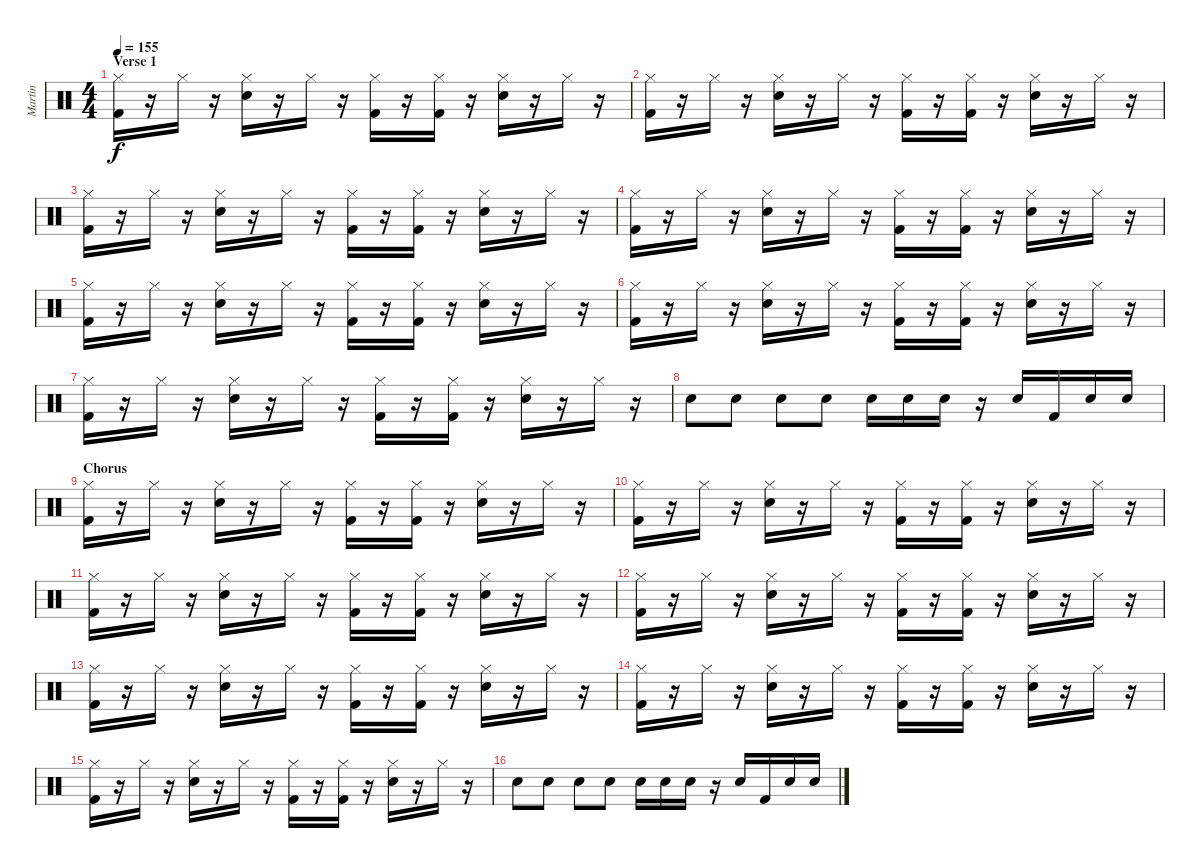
\track ("Martin" "Martin") {instrument percussion}
\staff {score}
\articulation defaults
\ts (4 4)
\section ("" "Verse 1")
\tempo 155
\clef neutral
\ks c
("Kick (hit) 2" "Hi-Hat (closed)").16{dy f} r.16 "Hi-Hat (closed)".16 r.16 ("Electric Snare (hit)" "Hi-Hat (closed)").16 r.16 "Hi-Hat (closed)".16 r.16 ("Kick (hit) 2" "Hi-Hat (closed)").16 r.16 ("Kick (hit) 2" "Hi-Hat (closed)").16 r.16 ("Electric Snare (hit)" "Hi-Hat (closed)").16 r.16 "Hi-Hat (closed)".16 r.16 |
("Kick (hit) 2" "Hi-Hat (closed)").16 r.16 "Hi-Hat (closed)".16 r.16 ("Electric Snare (hit)" "Hi-Hat (closed)").16 r.16 "Hi-Hat (closed)".16 r.16 ("Kick (hit) 2" "Hi-Hat (closed)").16 r.16 ("Kick (hit) 2" "Hi-Hat (closed)").16 r.16 ("Electric Snare (hit)" "Hi-Hat (closed)").16 r.16 "Hi-Hat (closed)".16 r.16 |
("Kick (hit) 2" "Hi-Hat (closed)").16 r.16 "Hi-Hat (closed)".16 r.16 ("Electric Snare (hit)" "Hi-Hat (closed)").16 r.16 "Hi-Hat (closed)".16 r.16 ("Kick (hit) 2" "Hi-Hat (closed)").16 r.16 ("Kick (hit) 2" "Hi-Hat (closed)").16 r.16 ("Electric Snare (hit)" "Hi-Hat (closed)").16 r.16 "Hi-Hat (closed)".16 r.16 |
("Kick (hit) 2" "Hi-Hat (closed)").16 r.16 "Hi-Hat (closed)".16 r.16 ("Electric Snare (hit)" "Hi-Hat (closed)").16 r.16 "Hi-Hat (closed)".16 r.16 ("Kick (hit) 2" "Hi-Hat (closed)").16 r.16 ("Kick (hit) 2" "Hi-Hat (closed)").16 r.16 ("Electric Snare (hit)" "Hi-Hat (closed)").16 r.16 "Hi-Hat (closed)".16 r.16 |
("Kick (hit) 2" "Hi-Hat (closed)").16 r.16 "Hi-Hat (closed)".16 r.16 ("Electric Snare (hit)" "Hi-Hat (closed)").16 r.16 "Hi-Hat (closed)".16 r.16 ("Kick (hit) 2" "Hi-Hat (closed)").16 r.16 ("Kick (hit) 2" "Hi-Hat (closed)").16 r.16 ("Electric Snare (hit)" "Hi-Hat (closed)").16 r.16 "Hi-Hat (closed)".16 r.16 |
("Kick (hit) 2" "Hi-Hat (closed)").16 r.16 "Hi-Hat (closed)".16 r.16 ("Electric Snare (hit)" "Hi-Hat (closed)").16 r.16 "Hi-Hat (closed)".16 r.16 ("Kick (hit) 2" "Hi-Hat (closed)").16 r.16 ("Kick (hit) 2" "Hi-Hat (closed)").16 r.16 ("Electric Snare (hit)" "Hi-Hat (closed)").16 r.16 "Hi-Hat (closed)".16 r.16 |
("Kick (hit) 2" "Hi-Hat (closed)").16 r.16 "Hi-Hat (closed)".16 r.16 ("Electric Snare (hit)" "Hi-Hat (closed)").16 r.16 "Hi-Hat (closed)".16 r.16 ("Kick (hit) 2" "Hi-Hat (closed)").16 r.16 ("Kick (hit) 2" "Hi-Hat (closed)").16 r.16 ("Electric Snare (hit)" "Hi-Hat (closed)").16 r.16 "Hi-Hat (closed)".16 r.16 |
"Electric Snare (hit)".8 "Electric Snare (hit)".8 "Electric Snare (hit)".8 "Electric Snare (hit)".8 "Electric Snare (hit)".16 "Electric Snare (hit)".16 "Electric Snare (hit)".16 r.16 "Electric Snare (hit)".16 "Kick (hit) 2".16 "Electric Snare (hit)".16 "Electric Snare (hit)".16 |
\section ("" "Chorus")
("Kick (hit) 2" "Hi-Hat (closed)").16 r.16 "Hi-Hat (closed)".16 r.16 ("Electric Snare (hit)" "Hi-Hat (closed)").16 r.16 "Hi-Hat (closed)".16 r.16 ("Kick (hit) 2" "Hi-Hat (closed)").16 r.16 ("Kick (hit) 2" "Hi-Hat (closed)").16 r.16 ("Electric Snare (hit)" "Hi-Hat (closed)").16 r.16 "Hi-Hat (closed)".16 r.16 |
("Kick (hit) 2" "Hi-Hat (closed)").16 r.16 "Hi-Hat (closed)".16 r.16 ("Electric Snare (hit)" "Hi-Hat (closed)").16 r.16 "Hi-Hat (closed)".16 r.16 ("Kick (hit) 2" "Hi-Hat (closed)").16 r.16 ("Kick (hit) 2" "Hi-Hat (closed)").16 r.16 ("Electric Snare (hit)" "Hi-Hat (closed)").16 r.16 "Hi-Hat (closed)".16 r.16 |
("Kick (hit) 2" "Hi-Hat (closed)").16 r.16 "Hi-Hat (closed)".16 r.16 ("Electric Snare (hit)" "Hi-Hat (closed)").16 r.16 "Hi-Hat (closed)".16 r.16 ("Kick (hit) 2" "Hi-Hat (closed)").16 r.16 ("Kick (hit) 2" "Hi-Hat (closed)").16 r.16 ("Electric Snare (hit)" "Hi-Hat (closed)").16 r.16 "Hi-Hat (closed)".16 r.16 |
("Kick (hit) 2" "Hi-Hat (closed)").16 r.16 "Hi-Hat (closed)".16 r.16 ("Electric Snare (hit)" "Hi-Hat (closed)").16 r.16 "Hi-Hat (closed)".16 r.16 ("Kick (hit) 2" "Hi-Hat (closed)").16 r.16 ("Kick (hit) 2" "Hi-Hat (closed)").16 r.16 ("Electric Snare (hit)" "Hi-Hat (closed)").16 r.16 "Hi-Hat (closed)".16 r.16 |
("Kick (hit) 2" "Hi-Hat (closed)").16 r.16 "Hi-Hat (closed)".16 r.16 ("Electric Snare (hit)" "Hi-Hat (closed)").16 r.16 "Hi-Hat (closed)".16 r.16 ("Kick (hit) 2" "Hi-Hat (closed)").16 r.16 ("Kick (hit) 2" "Hi-Hat (closed)").16 r.16 ("Electric Snare (hit)" "Hi-Hat (closed)").16 r.16 "Hi-Hat (closed)".16 r.16 |
("Kick (hit) 2" "Hi-Hat (closed)").16 r.16 "Hi-Hat (closed)".16 r.16 ("Electric Snare (hit)" "Hi-Hat (closed)").16 r.16 "Hi-Hat (closed)".16 r.16 ("Kick (hit) 2" "Hi-Hat (closed)").16 r.16 ("Kick (hit) 2" "Hi-Hat (closed)").16 r.16 ("Electric Snare (hit)" "Hi-Hat (closed)").16 r.16 "Hi-Hat (closed)".16 r.16 |
("Kick (hit) 2" "Hi-Hat (closed)").16 r.16 "Hi-Hat (closed)".16 r.16 ("Electric Snare (hit)" "Hi-Hat (closed)").16 r.16 "Hi-Hat (closed)".16 r.16 ("Kick (hit) 2" "Hi-Hat (closed)").16 r.16 ("Kick (hit) 2" "Hi-Hat (closed)").16 r.16 ("Electric Snare (hit)" "Hi-Hat (closed)").16 r.16 "Hi-Hat (closed)".16 r.16 |
"Electric Snare (hit)".8 "Electric Snare (hit)".8 "Electric Snare (hit)".8 "Electric Snare (hit)".8 "Electric Snare (hit)".16 "Electric Snare (hit)".16 "Electric Snare (hit)".16 r.16 "Electric Snare (hit)".16 "Kick (hit) 2".16 "Electric Snare (hit)".16 "Electric Snare (hit)".16
